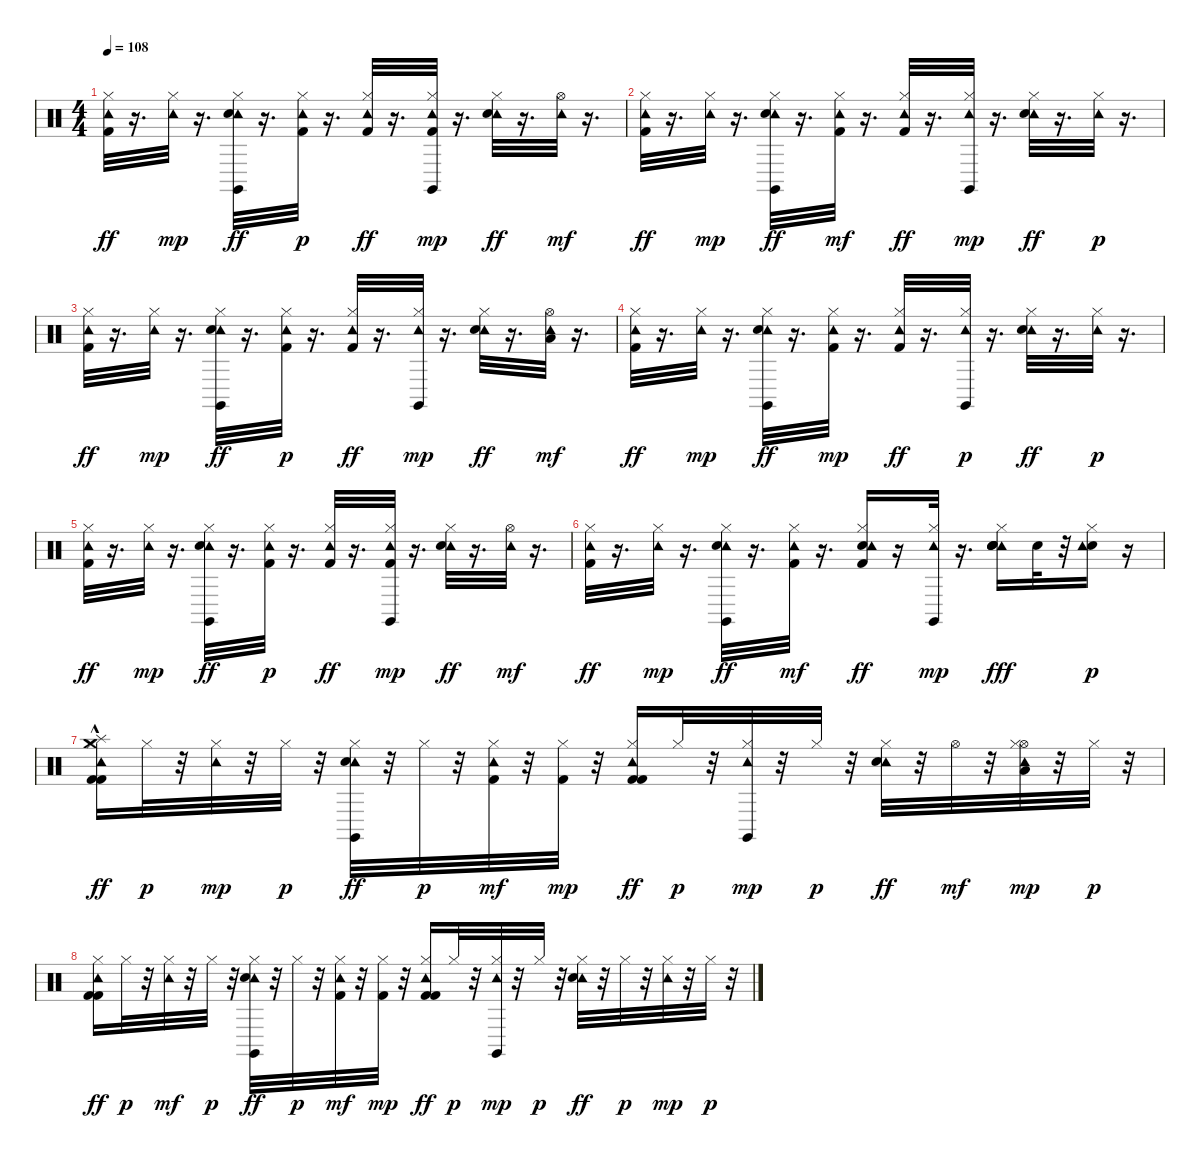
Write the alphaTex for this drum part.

\track "" {instrument percussion}
\staff {score}
\articulation defaults
\ts (4 4)
\tempo 108
\clef neutral
\ks c
("Hi-Hat (closed)" "Tambourine (hit)" "Kick (hit) 2").32{dy ff} r.16{d} ("Hi-Hat (closed)" "Tambourine (hit)").32{dy mp} r.16{d} ("Hi-Hat (closed)" "Tambourine (hit)" "Claves (hit)" "Snare (hit) 2").32{dy ff} r.16{d} ("Hi-Hat (closed)" "Tambourine (hit)" "Kick (hit) 2").32{dy p} r.16{d} ("Hi-Hat (closed)" "Tambourine (hit)" "Kick (hit) 2").32{dy ff} r.16{d} ("Hi-Hat (closed)" "Tambourine (hit)" "Claves (hit)" "Kick (hit) 2").32{dy mp} r.16{d} ("Hi-Hat (closed)" "Tambourine (hit)" "Snare (hit) 2").32{dy ff} r.16{d} ("Tambourine (hit)" "Hi-Hat (open)").32{dy mf} r.16{d} |
("Hi-Hat (closed)" "Tambourine (hit)" "Kick (hit) 2").32{dy ff} r.16{d} ("Hi-Hat (closed)" "Tambourine (hit)").32{dy mp} r.16{d} ("Hi-Hat (closed)" "Tambourine (hit)" "Claves (hit)" "Snare (hit) 2").32{dy ff} r.16{d} ("Hi-Hat (closed)" "Tambourine (hit)" "Kick (hit) 2").32{dy mf} r.16{d} ("Hi-Hat (closed)" "Tambourine (hit)" "Kick (hit) 2").32{dy ff} r.16{d} ("Hi-Hat (closed)" "Tambourine (hit)" "Claves (hit)").32{dy mp} r.16{d} ("Hi-Hat (closed)" "Tambourine (hit)" "Snare (hit) 2").32{dy ff} r.16{d} ("Hi-Hat (closed)" "Tambourine (hit)").32{dy p} r.16{d} |
("Hi-Hat (closed)" "Tambourine (hit)" "Kick (hit) 2").32{dy ff} r.16{d} ("Hi-Hat (closed)" "Tambourine (hit)").32{dy mp} r.16{d} ("Hi-Hat (closed)" "Tambourine (hit)" "Claves (hit)" "Snare (hit) 2").32{dy ff} r.16{d} ("Hi-Hat (closed)" "Tambourine (hit)" "Kick (hit) 2").32{dy p} r.16{d} ("Tambourine (hit)" "Hi-Hat (closed)" "Kick (hit) 2").32{dy ff} r.16{d} ("Hi-Hat (closed)" "Tambourine (hit)" "Claves (hit)").32{dy mp} r.16{d} ("Hi-Hat (closed)" "Tambourine (hit)" "Snare (hit) 2").32{dy ff} r.16{d} ("Tambourine (hit)" "Hi-Hat (open)" "Low Tom (hit)").32{dy mf} r.16{d} |
("Hi-Hat (closed)" "Tambourine (hit)" "Kick (hit) 2").32{dy ff} r.16{d} ("Hi-Hat (closed)" "Tambourine (hit)").32{dy mp} r.16{d} ("Hi-Hat (closed)" "Tambourine (hit)" "Claves (hit)" "Snare (hit) 2").32{dy ff} r.16{d} ("Tambourine (hit)" "Hi-Hat (closed)" "Kick (hit) 2").32{dy mp} r.16{d} ("Hi-Hat (closed)" "Tambourine (hit)" "Kick (hit) 2").32{dy ff} r.16{d} ("Tambourine (hit)" "Hi-Hat (closed)" "Claves (hit)").32{dy p} r.16{d} ("Hi-Hat (closed)" "Tambourine (hit)" "Snare (hit) 2").32{dy ff} r.16{d} ("Hi-Hat (closed)" "Tambourine (hit)").32{dy p} r.16{d} |
("Hi-Hat (closed)" "Tambourine (hit)" "Kick (hit) 2").32{dy ff} r.16{d} ("Hi-Hat (closed)" "Tambourine (hit)").32{dy mp} r.16{d} ("Hi-Hat (closed)" "Tambourine (hit)" "Claves (hit)" "Snare (hit) 2").32{dy ff} r.16{d} ("Hi-Hat (closed)" "Tambourine (hit)" "Kick (hit) 2").32{dy p} r.16{d} ("Hi-Hat (closed)" "Tambourine (hit)" "Kick (hit) 2").32{dy ff} r.16{d} ("Tambourine (hit)" "Hi-Hat (closed)" "Claves (hit)" "Kick (hit) 2").32{dy mp} r.16{d} ("Hi-Hat (closed)" "Tambourine (hit)" "Snare (hit) 2").32{dy ff} r.16{d} ("Tambourine (hit)" "Hi-Hat (open)").32{dy mf} r.16{d} |
("Tambourine (hit)" "Hi-Hat (closed)" "Kick (hit) 2").32{dy ff} r.16{d} ("Hi-Hat (closed)" "Tambourine (hit)").32{dy mp} r.16{d} ("Hi-Hat (closed)" "Tambourine (hit)" "Claves (hit)" "Snare (hit) 2").32{dy ff} r.16{d} ("Tambourine (hit)" "Hi-Hat (closed)" "Kick (hit) 2").32{dy mf} r.16{d} ("Snare (hit) 2" "Hi-Hat (closed)" "Tambourine (hit)" "Kick (hit) 2").16{dy ff} r.16 ("Hi-Hat (closed)" "Tambourine (hit)" "Claves (hit)").32{dy mp} r.16{d} ("Hi-Hat (closed)" "Tambourine (hit)" "Snare (hit) 2" "Snare (hit) 2" "Snare (hit) 2").16{dy fff} "Snare (hit) 2".32 r.32 ("Snare (hit) 2" "Hi-Hat (closed)" "Tambourine (hit)").16{dy p} r.16 |
("Tambourine (hit)" "Kick (hit) 2" "Crash medium (hit)" "Splash (hit)"{hac} "Hi-Hat (closed)" "Kick (hit) 2").16{dy ff} "Hi-Hat (closed)".32{dy p} r.32 ("Hi-Hat (closed)" "Tambourine (hit)").32{dy mp} r.32 "Hi-Hat (closed)".32{dy p} r.32 ("Tambourine (hit)" "Claves (hit)" "Hi-Hat (closed)" "Snare (hit) 2").32{dy ff} r.32 "Hi-Hat (closed)".32{dy p} r.32 ("Tambourine (hit)" "Kick (hit) 2" "Hi-Hat (closed)").32{dy mf} r.32 ("Hi-Hat (closed)" "Kick (hit) 2").32{dy mp} r.32 ("Kick (hit) 2" "Tambourine (hit)" "Hi-Hat (closed)" "Kick (hit) 2").16{dy ff} "Hi-Hat (closed)".32{dy p} r.32 ("Tambourine (hit)" "Claves (hit)" "Hi-Hat (closed)").32{dy mp} r.32 "Hi-Hat (closed)".32{dy p} r.32 ("Tambourine (hit)" "Hi-Hat (closed)" "Snare (hit) 2").32{dy ff} r.32 "Hi-Hat (open)".32{dy mf} r.32 ("Tambourine (hit)" "Hi-Hat (open)" "Low Tom (hit)" "Hi-Hat (closed)").32{dy mp} r.32 "Hi-Hat (closed)".32{dy p} r.32 |
("Kick (hit) 2" "Tambourine (hit)" "Hi-Hat (closed)" "Kick (hit) 2").16{dy ff} "Hi-Hat (closed)".32{dy p} r.32 ("Tambourine (hit)" "Hi-Hat (closed)").32{dy mf} r.32 "Hi-Hat (closed)".32{dy p} r.32 ("Tambourine (hit)" "Claves (hit)" "Hi-Hat (closed)" "Snare (hit) 2").32{dy ff} r.32 "Hi-Hat (closed)".32{dy p} r.32 ("Kick (hit) 2" "Tambourine (hit)" "Hi-Hat (closed)").32{dy mf} r.32 ("Hi-Hat (closed)" "Kick (hit) 2").32{dy mp} r.32 ("Tambourine (hit)" "Kick (hit) 2" "Hi-Hat (closed)" "Kick (hit) 2").16{dy ff} "Hi-Hat (closed)".32{dy p} r.32 ("Tambourine (hit)" "Claves (hit)" "Hi-Hat (closed)").32{dy mp} r.32 "Hi-Hat (closed)".32{dy p} r.32 ("Tambourine (hit)" "Hi-Hat (closed)" "Snare (hit) 2").32{dy ff} r.32 "Hi-Hat (closed)".32{dy p} r.32 ("Tambourine (hit)" "Hi-Hat (closed)").32{dy mp} r.32 "Hi-Hat (closed)".32{dy p} r.32
